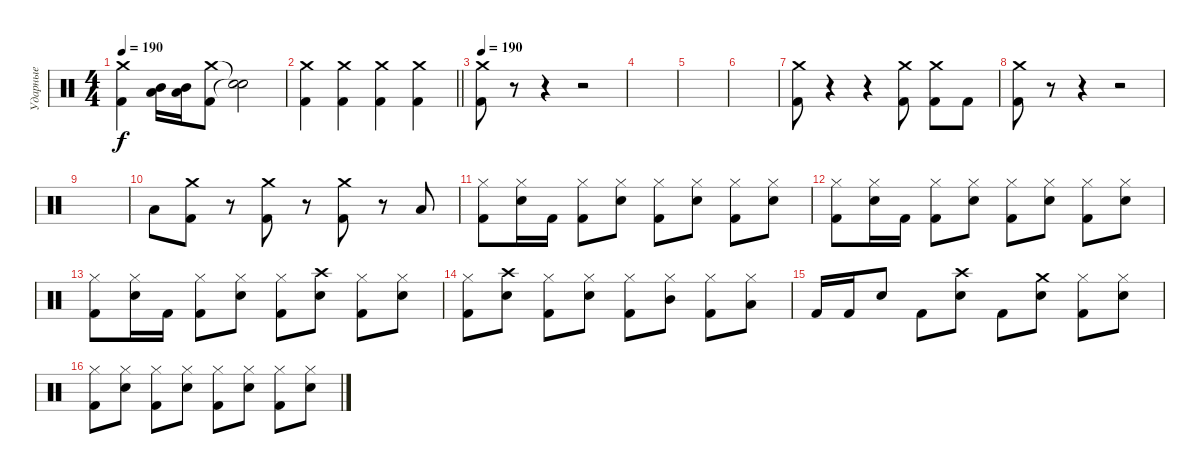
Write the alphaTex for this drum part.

\track ("Ударные" "Ударные") {instrument percussion}
\staff {score}
\articulation defaults
\ts (4 4)
\tempo 190
\clef neutral
\ks c
("Crash medium (hit)" "Kick (hit) 2").4{dy f} ("Low Tom (hit)" "Mid Tom (hit)").16{bd 30} ("Low Tom (hit)" "Mid Tom (hit)").16{bd 30} ("Crash medium (hit)" "Kick (hit) 2").8 ("Snare (hit)"{t} "Snare (hit)"{t}).2 |
\barLineRight lightlight
("Crash medium (hit)" "Kick (hit) 2").4 ("Crash medium (hit)" "Kick (hit) 2").4 ("Crash medium (hit)" "Kick (hit) 2").4 ("Crash medium (hit)" "Kick (hit) 2").4 |
\tempo 190
("Crash medium (hit)" "Kick (hit) 2").8 r.8 r.4 r.2 |
|
|
|
("Kick (hit) 2" "Crash medium (hit)").8 r.4 r.4 ("Kick (hit) 2" "Crash medium (hit)").8 ("Kick (hit) 2" "Crash medium (hit)").8 "Kick (hit) 2".8 |
("Kick (hit) 2" "Crash medium (hit)").8 r.8 r.4 r.2 |
|
"Low Tom (hit)".8 ("Kick (hit) 2" "Crash medium (hit)").8 r.8 ("Kick (hit) 2" "Crash medium (hit)").8 r.8 ("Kick (hit) 2" "Crash medium (hit)").8 r.8 "Low Tom (hit)".8 |
("Kick (hit) 2" "Hi-Hat (closed)").8 ("Snare (hit) 2" "Hi-Hat (closed)").16 "Kick (hit) 2".16 ("Kick (hit) 2" "Hi-Hat (closed)").8 ("Snare (hit) 2" "Hi-Hat (closed)").8 ("Kick (hit) 2" "Hi-Hat (closed)").8 ("Snare (hit) 2" "Hi-Hat (closed)").8 ("Kick (hit) 2" "Hi-Hat (closed)").8 ("Snare (hit) 2" "Hi-Hat (closed)").8 |
("Kick (hit) 2" "Hi-Hat (closed)").8 ("Snare (hit) 2" "Hi-Hat (closed)").16 "Kick (hit) 2".16 ("Kick (hit) 2" "Hi-Hat (closed)").8 ("Snare (hit) 2" "Hi-Hat (closed)").8 ("Kick (hit) 2" "Hi-Hat (closed)").8 ("Snare (hit) 2" "Hi-Hat (closed)").8 ("Kick (hit) 2" "Hi-Hat (closed)").8 ("Snare (hit) 2" "Hi-Hat (closed)").8 |
("Kick (hit) 2" "Hi-Hat (closed)").8 ("Snare (hit) 2" "Hi-Hat (closed)").16 "Kick (hit) 2".16 ("Kick (hit) 2" "Hi-Hat (closed)").8 ("Snare (hit) 2" "Hi-Hat (closed)").8 ("Kick (hit) 2" "Hi-Hat (closed)").8 ("Snare (hit) 2" "Crash high (hit)").8 ("Kick (hit) 2" "Hi-Hat (closed)").8 ("Snare (hit) 2" "Hi-Hat (closed)").8 |
("Kick (hit) 2" "Hi-Hat (closed)").8 ("Snare (hit) 2" "Crash high (hit)").8 ("Kick (hit) 2" "Hi-Hat (closed)").8 ("Snare (hit) 2" "Hi-Hat (closed)").8 ("Kick (hit) 2" "Hi-Hat (closed)").8 ("Hi-Hat (closed)" "Mid Tom (hit)").8 ("Kick (hit) 2" "Hi-Hat (closed)").8 ("Hi-Hat (closed)" "Low Tom (hit)").8 |
"Kick (hit) 2".16 "Kick (hit) 2".16 "Snare (hit) 2".8 "Kick (hit) 2".8 ("Snare (hit) 2" "Crash high (hit)").8 "Kick (hit) 2".8 ("Snare (hit) 2" "Crash medium (hit)").8 ("Kick (hit) 2" "Hi-Hat (closed)").8 ("Snare (hit) 2" "Hi-Hat (closed)").8 |
("Kick (hit) 2" "Hi-Hat (closed)").8 ("Snare (hit) 2" "Hi-Hat (closed)").8 ("Kick (hit) 2" "Hi-Hat (closed)").8 ("Snare (hit) 2" "Hi-Hat (closed)").8 ("Kick (hit) 2" "Hi-Hat (closed)").8 ("Snare (hit) 2" "Hi-Hat (closed)").8 ("Kick (hit) 2" "Hi-Hat (closed)").8 ("Snare (hit) 2" "Hi-Hat (closed)").8
